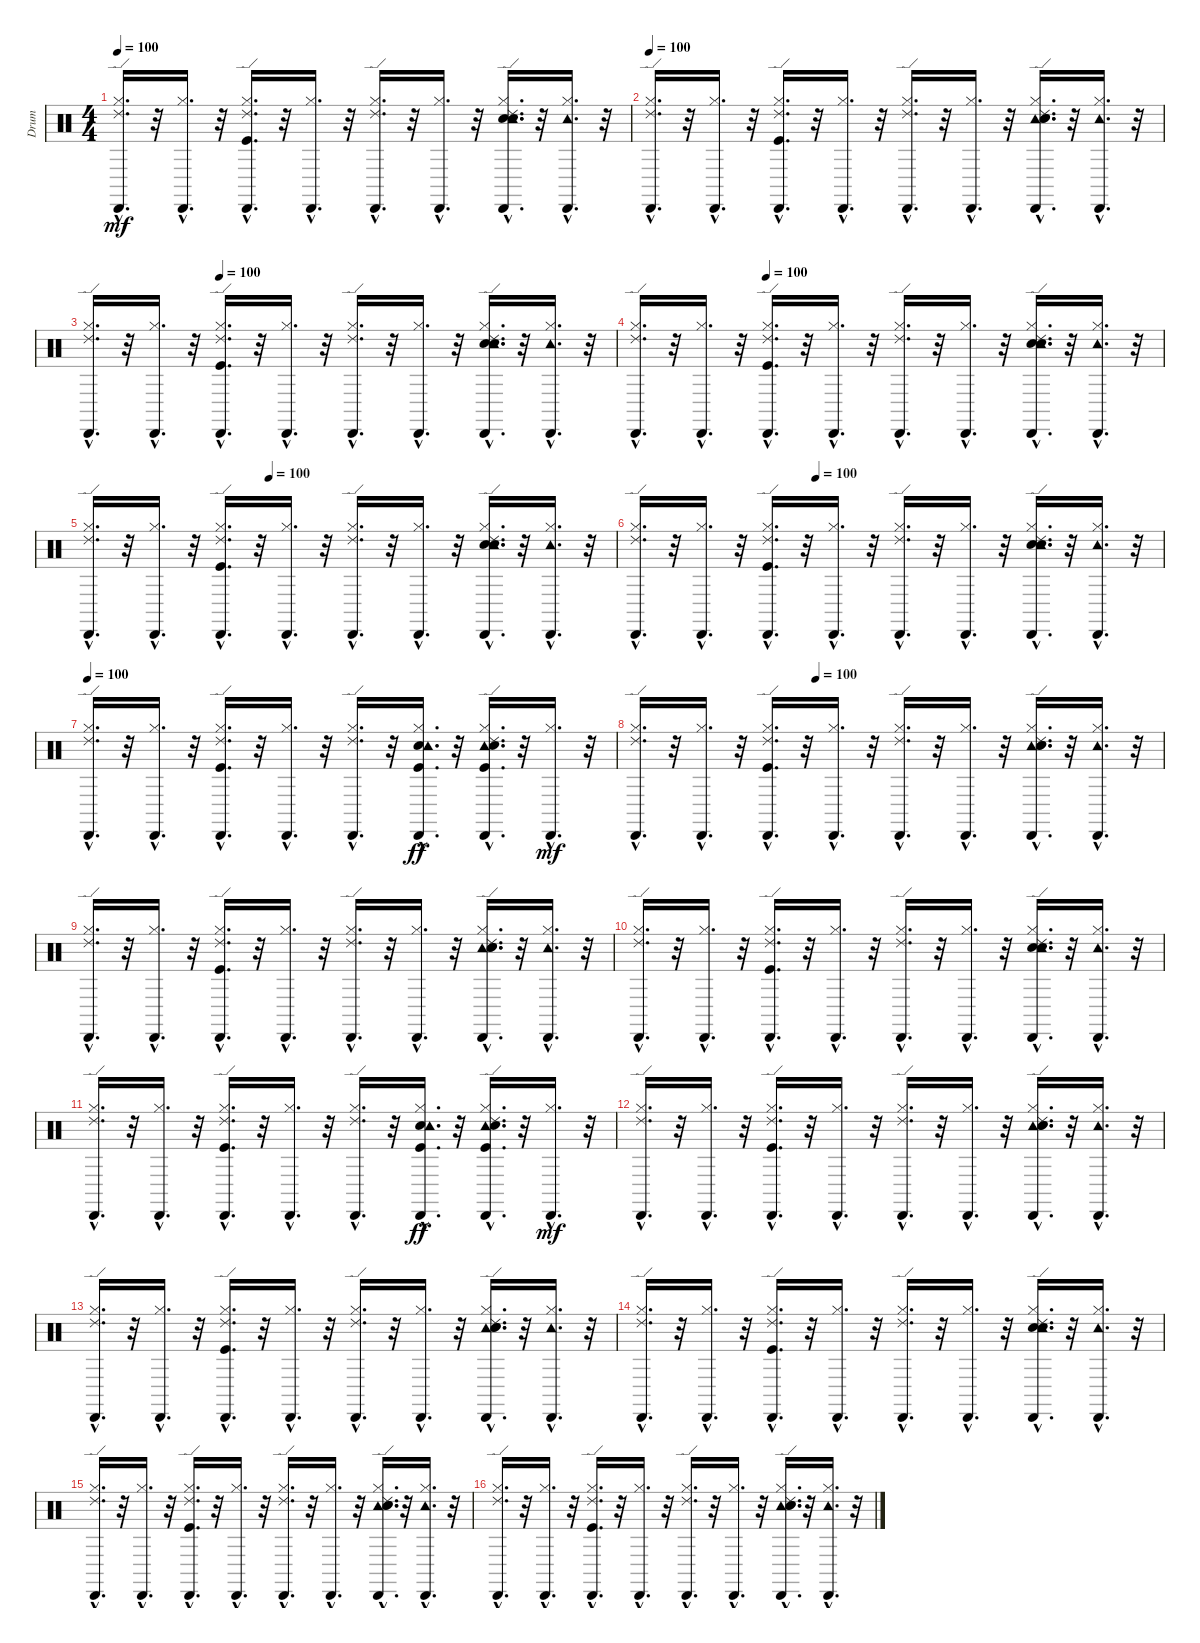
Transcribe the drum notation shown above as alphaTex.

\track ("Drum" "Drum") {instrument percussion}
\staff {score}
\articulation defaults
\ts (4 4)
\tempo 100
\clef neutral
\ks c
("Ride (edge) 2"{hac} "Cabasa (hit)"{hac} "Hi-Hat (closed)"{hac}).16{d dy mf} r.32 ("Cabasa (hit)"{hac} "Hi-Hat (closed)"{hac}).16{d} r.32 ("Ride (edge) 2"{hac} "Cabasa (hit)"{hac} "Kick (hit)"{hac} "Hi-Hat (closed)"{hac}).16{d} r.32 ("Cabasa (hit)"{hac} "Hi-Hat (closed)"{hac}).16{d} r.32 ("Ride (edge) 2"{hac} "Cabasa (hit)"{hac} "Hi-Hat (closed)"{hac}).16{d} r.32 ("Cabasa (hit)"{hac} "Hi-Hat (closed)"{hac}).16{d} r.32 ("Electric Snare (hit)"{hac} "Ride (edge) 2"{hac} "Cabasa (hit)"{hac} "Snare (hit) 2"{hac} "Tambourine (hit)"{hac} "Hi-Hat (closed)"{hac}).16{d} r.32 ("Cabasa (hit)"{hac} "Tambourine (hit)"{hac} "Hi-Hat (closed)"{hac}).16{d} r.32 |
\tempo 100
("Hi-Hat (closed)"{hac} "Cabasa (hit)"{hac} "Ride (edge) 2"{hac}).16{d} r.32 ("Hi-Hat (closed)"{hac} "Cabasa (hit)"{hac}).16{d} r.32 ("Hi-Hat (closed)"{hac} "Kick (hit)"{hac} "Cabasa (hit)"{hac} "Ride (edge) 2"{hac}).16{d} r.32 ("Hi-Hat (closed)"{hac} "Cabasa (hit)"{hac}).16{d} r.32 ("Hi-Hat (closed)"{hac} "Cabasa (hit)"{hac} "Ride (edge) 2"{hac}).16{d} r.32 ("Hi-Hat (closed)"{hac} "Cabasa (hit)"{hac}).16{d} r.32 ("Hi-Hat (closed)"{hac} "Tambourine (hit)"{hac} "Snare (hit) 2"{hac} "Cabasa (hit)"{hac} "Ride (edge) 2"{hac} "Electric Snare (hit)"{hac}).16{d} r.32 ("Hi-Hat (closed)"{hac} "Tambourine (hit)"{hac} "Cabasa (hit)"{hac}).16{d} r.32 |
\tempo (100 0.25)
("Ride (edge) 2"{hac} "Cabasa (hit)"{hac} "Hi-Hat (closed)"{hac}).16{d} r.32 ("Cabasa (hit)"{hac} "Hi-Hat (closed)"{hac}).16{d} r.32 ("Ride (edge) 2"{hac} "Cabasa (hit)"{hac} "Kick (hit)"{hac} "Hi-Hat (closed)"{hac}).16{d} r.32 ("Cabasa (hit)"{hac} "Hi-Hat (closed)"{hac}).16{d} r.32 ("Ride (edge) 2"{hac} "Cabasa (hit)"{hac} "Hi-Hat (closed)"{hac}).16{d} r.32 ("Cabasa (hit)"{hac} "Hi-Hat (closed)"{hac}).16{d} r.32 ("Electric Snare (hit)"{hac} "Ride (edge) 2"{hac} "Cabasa (hit)"{hac} "Snare (hit) 2"{hac} "Tambourine (hit)"{hac} "Hi-Hat (closed)"{hac}).16{d} r.32 ("Cabasa (hit)"{hac} "Tambourine (hit)"{hac} "Hi-Hat (closed)"{hac}).16{d} r.32 |
\tempo (100 0.25)
("Ride (edge) 2"{hac} "Cabasa (hit)"{hac} "Hi-Hat (closed)"{hac}).16{d} r.32 ("Cabasa (hit)"{hac} "Hi-Hat (closed)"{hac}).16{d} r.32 ("Ride (edge) 2"{hac} "Cabasa (hit)"{hac} "Kick (hit)"{hac} "Hi-Hat (closed)"{hac}).16{d} r.32 ("Cabasa (hit)"{hac} "Hi-Hat (closed)"{hac}).16{d} r.32 ("Ride (edge) 2"{hac} "Cabasa (hit)"{hac} "Hi-Hat (closed)"{hac}).16{d} r.32 ("Cabasa (hit)"{hac} "Hi-Hat (closed)"{hac}).16{d} r.32 ("Electric Snare (hit)"{hac} "Ride (edge) 2"{hac} "Cabasa (hit)"{hac} "Snare (hit) 2"{hac} "Tambourine (hit)"{hac} "Hi-Hat (closed)"{hac}).16{d} r.32 ("Cabasa (hit)"{hac} "Tambourine (hit)"{hac} "Hi-Hat (closed)"{hac}).16{d} r.32 |
\tempo (100 0.34375)
("Ride (edge) 2"{hac} "Cabasa (hit)"{hac} "Hi-Hat (closed)"{hac}).16{d} r.32 ("Cabasa (hit)"{hac} "Hi-Hat (closed)"{hac}).16{d} r.32 ("Ride (edge) 2"{hac} "Cabasa (hit)"{hac} "Kick (hit)"{hac} "Hi-Hat (closed)"{hac}).16{d} r.32 ("Cabasa (hit)"{hac} "Hi-Hat (closed)"{hac}).16{d} r.32 ("Ride (edge) 2"{hac} "Cabasa (hit)"{hac} "Hi-Hat (closed)"{hac}).16{d} r.32 ("Cabasa (hit)"{hac} "Hi-Hat (closed)"{hac}).16{d} r.32 ("Electric Snare (hit)"{hac} "Ride (edge) 2"{hac} "Cabasa (hit)"{hac} "Snare (hit) 2"{hac} "Tambourine (hit)"{hac} "Hi-Hat (closed)"{hac}).16{d} r.32 ("Cabasa (hit)"{hac} "Tambourine (hit)"{hac} "Hi-Hat (closed)"{hac}).16{d} r.32 |
\tempo (100 0.34375)
("Ride (edge) 2"{hac} "Cabasa (hit)"{hac} "Hi-Hat (closed)"{hac}).16{d} r.32 ("Cabasa (hit)"{hac} "Hi-Hat (closed)"{hac}).16{d} r.32 ("Ride (edge) 2"{hac} "Cabasa (hit)"{hac} "Kick (hit)"{hac} "Hi-Hat (closed)"{hac}).16{d} r.32 ("Cabasa (hit)"{hac} "Hi-Hat (closed)"{hac}).16{d} r.32 ("Ride (edge) 2"{hac} "Cabasa (hit)"{hac} "Hi-Hat (closed)"{hac}).16{d} r.32 ("Cabasa (hit)"{hac} "Hi-Hat (closed)"{hac}).16{d} r.32 ("Electric Snare (hit)"{hac} "Ride (edge) 2"{hac} "Cabasa (hit)"{hac} "Snare (hit) 2"{hac} "Tambourine (hit)"{hac} "Hi-Hat (closed)"{hac}).16{d} r.32 ("Cabasa (hit)"{hac} "Tambourine (hit)"{hac} "Hi-Hat (closed)"{hac}).16{d} r.32 |
\tempo 100
("Hi-Hat (closed)"{hac} "Cabasa (hit)"{hac} "Ride (edge) 2"{hac}).16{d} r.32 ("Hi-Hat (closed)"{hac} "Cabasa (hit)"{hac}).16{d} r.32 ("Hi-Hat (closed)"{hac} "Kick (hit)"{hac} "Cabasa (hit)"{hac} "Ride (edge) 2"{hac}).16{d} r.32 ("Hi-Hat (closed)"{hac} "Cabasa (hit)"{hac}).16{d} r.32 ("Hi-Hat (closed)"{hac} "Cabasa (hit)"{hac} "Ride (edge) 2"{hac}).16{d} r.32 ("Hi-Hat (closed)"{hac} "Cabasa (hit)"{hac} "Snare (hit) 2"{hac} "Kick (hit)"{hac} "Tambourine (hit)"{hac}).16{d dy ff} r.32 ("Hi-Hat (closed)"{hac} "Tambourine (hit)"{hac} "Snare (hit) 2"{hac} "Cabasa (hit)"{hac} "Ride (edge) 2"{hac} "Kick (hit)"{hac}).16{d} r.32 ("Hi-Hat (closed)"{hac} "Cabasa (hit)"{hac}).16{d dy mf} r.32 |
\tempo (100 0.34375)
("Hi-Hat (closed)"{hac} "Cabasa (hit)"{hac} "Ride (edge) 2"{hac}).16{d} r.32 ("Hi-Hat (closed)"{hac} "Cabasa (hit)"{hac}).16{d} r.32 ("Hi-Hat (closed)"{hac} "Kick (hit)"{hac} "Cabasa (hit)"{hac} "Ride (edge) 2"{hac}).16{d} r.32 ("Hi-Hat (closed)"{hac} "Cabasa (hit)"{hac}).16{d} r.32 ("Hi-Hat (closed)"{hac} "Cabasa (hit)"{hac} "Ride (edge) 2"{hac}).16{d} r.32 ("Hi-Hat (closed)"{hac} "Cabasa (hit)"{hac}).16{d} r.32 ("Hi-Hat (closed)"{hac} "Tambourine (hit)"{hac} "Snare (hit) 2"{hac} "Cabasa (hit)"{hac} "Ride (edge) 2"{hac} "Electric Snare (hit)"{hac}).16{d} r.32 ("Hi-Hat (closed)"{hac} "Tambourine (hit)"{hac} "Cabasa (hit)"{hac}).16{d} r.32 |
("Hi-Hat (closed)"{hac} "Cabasa (hit)"{hac} "Ride (edge) 2"{hac}).16{d} r.32 ("Hi-Hat (closed)"{hac} "Cabasa (hit)"{hac}).16{d} r.32 ("Hi-Hat (closed)"{hac} "Kick (hit)"{hac} "Cabasa (hit)"{hac} "Ride (edge) 2"{hac}).16{d} r.32 ("Hi-Hat (closed)"{hac} "Cabasa (hit)"{hac}).16{d} r.32 ("Hi-Hat (closed)"{hac} "Cabasa (hit)"{hac} "Ride (edge) 2"{hac}).16{d} r.32 ("Hi-Hat (closed)"{hac} "Cabasa (hit)"{hac}).16{d} r.32 ("Hi-Hat (closed)"{hac} "Tambourine (hit)"{hac} "Snare (hit) 2"{hac} "Cabasa (hit)"{hac} "Ride (edge) 2"{hac} "Electric Snare (hit)"{hac}).16{d} r.32 ("Hi-Hat (closed)"{hac} "Tambourine (hit)"{hac} "Cabasa (hit)"{hac}).16{d} r.32 |
("Ride (edge) 2"{hac} "Cabasa (hit)"{hac} "Hi-Hat (closed)"{hac}).16{d} r.32 ("Cabasa (hit)"{hac} "Hi-Hat (closed)"{hac}).16{d} r.32 ("Ride (edge) 2"{hac} "Cabasa (hit)"{hac} "Kick (hit)"{hac} "Hi-Hat (closed)"{hac}).16{d} r.32 ("Cabasa (hit)"{hac} "Hi-Hat (closed)"{hac}).16{d} r.32 ("Ride (edge) 2"{hac} "Cabasa (hit)"{hac} "Hi-Hat (closed)"{hac}).16{d} r.32 ("Cabasa (hit)"{hac} "Hi-Hat (closed)"{hac}).16{d} r.32 ("Electric Snare (hit)"{hac} "Ride (edge) 2"{hac} "Cabasa (hit)"{hac} "Snare (hit) 2"{hac} "Tambourine (hit)"{hac} "Hi-Hat (closed)"{hac}).16{d} r.32 ("Cabasa (hit)"{hac} "Tambourine (hit)"{hac} "Hi-Hat (closed)"{hac}).16{d} r.32 |
("Hi-Hat (closed)"{hac} "Cabasa (hit)"{hac} "Ride (edge) 2"{hac}).16{d} r.32 ("Hi-Hat (closed)"{hac} "Cabasa (hit)"{hac}).16{d} r.32 ("Hi-Hat (closed)"{hac} "Kick (hit)"{hac} "Cabasa (hit)"{hac} "Ride (edge) 2"{hac}).16{d} r.32 ("Hi-Hat (closed)"{hac} "Cabasa (hit)"{hac}).16{d} r.32 ("Hi-Hat (closed)"{hac} "Cabasa (hit)"{hac} "Ride (edge) 2"{hac}).16{d} r.32 ("Hi-Hat (closed)"{hac} "Cabasa (hit)"{hac} "Snare (hit) 2"{hac} "Kick (hit)"{hac} "Tambourine (hit)"{hac}).16{d dy ff} r.32 ("Hi-Hat (closed)"{hac} "Tambourine (hit)"{hac} "Snare (hit) 2"{hac} "Cabasa (hit)"{hac} "Ride (edge) 2"{hac} "Kick (hit)"{hac}).16{d} r.32 ("Hi-Hat (closed)"{hac} "Cabasa (hit)"{hac}).16{d dy mf} r.32 |
("Hi-Hat (closed)"{hac} "Cabasa (hit)"{hac} "Ride (edge) 2"{hac}).16{d} r.32 ("Hi-Hat (closed)"{hac} "Cabasa (hit)"{hac}).16{d} r.32 ("Hi-Hat (closed)"{hac} "Kick (hit)"{hac} "Cabasa (hit)"{hac} "Ride (edge) 2"{hac}).16{d} r.32 ("Hi-Hat (closed)"{hac} "Cabasa (hit)"{hac}).16{d} r.32 ("Hi-Hat (closed)"{hac} "Cabasa (hit)"{hac} "Ride (edge) 2"{hac}).16{d} r.32 ("Hi-Hat (closed)"{hac} "Cabasa (hit)"{hac}).16{d} r.32 ("Hi-Hat (closed)"{hac} "Tambourine (hit)"{hac} "Snare (hit) 2"{hac} "Cabasa (hit)"{hac} "Ride (edge) 2"{hac} "Electric Snare (hit)"{hac}).16{d} r.32 ("Hi-Hat (closed)"{hac} "Tambourine (hit)"{hac} "Cabasa (hit)"{hac}).16{d} r.32 |
("Hi-Hat (closed)"{hac} "Cabasa (hit)"{hac} "Ride (edge) 2"{hac}).16{d} r.32 ("Hi-Hat (closed)"{hac} "Cabasa (hit)"{hac}).16{d} r.32 ("Hi-Hat (closed)"{hac} "Kick (hit)"{hac} "Cabasa (hit)"{hac} "Ride (edge) 2"{hac}).16{d} r.32 ("Hi-Hat (closed)"{hac} "Cabasa (hit)"{hac}).16{d} r.32 ("Hi-Hat (closed)"{hac} "Cabasa (hit)"{hac} "Ride (edge) 2"{hac}).16{d} r.32 ("Hi-Hat (closed)"{hac} "Cabasa (hit)"{hac}).16{d} r.32 ("Hi-Hat (closed)"{hac} "Tambourine (hit)"{hac} "Snare (hit) 2"{hac} "Cabasa (hit)"{hac} "Ride (edge) 2"{hac} "Electric Snare (hit)"{hac}).16{d} r.32 ("Hi-Hat (closed)"{hac} "Tambourine (hit)"{hac} "Cabasa (hit)"{hac}).16{d} r.32 |
("Ride (edge) 2"{hac} "Cabasa (hit)"{hac} "Hi-Hat (closed)"{hac}).16{d} r.32 ("Cabasa (hit)"{hac} "Hi-Hat (closed)"{hac}).16{d} r.32 ("Ride (edge) 2"{hac} "Cabasa (hit)"{hac} "Kick (hit)"{hac} "Hi-Hat (closed)"{hac}).16{d} r.32 ("Cabasa (hit)"{hac} "Hi-Hat (closed)"{hac}).16{d} r.32 ("Ride (edge) 2"{hac} "Cabasa (hit)"{hac} "Hi-Hat (closed)"{hac}).16{d} r.32 ("Cabasa (hit)"{hac} "Hi-Hat (closed)"{hac}).16{d} r.32 ("Electric Snare (hit)"{hac} "Ride (edge) 2"{hac} "Cabasa (hit)"{hac} "Snare (hit) 2"{hac} "Tambourine (hit)"{hac} "Hi-Hat (closed)"{hac}).16{d} r.32 ("Cabasa (hit)"{hac} "Tambourine (hit)"{hac} "Hi-Hat (closed)"{hac}).16{d} r.32 |
("Hi-Hat (closed)"{hac} "Cabasa (hit)"{hac} "Ride (edge) 2"{hac}).16{d} r.32 ("Hi-Hat (closed)"{hac} "Cabasa (hit)"{hac}).16{d} r.32 ("Hi-Hat (closed)"{hac} "Kick (hit)"{hac} "Cabasa (hit)"{hac} "Ride (edge) 2"{hac}).16{d} r.32 ("Hi-Hat (closed)"{hac} "Cabasa (hit)"{hac}).16{d} r.32 ("Hi-Hat (closed)"{hac} "Cabasa (hit)"{hac} "Ride (edge) 2"{hac}).16{d} r.32 ("Hi-Hat (closed)"{hac} "Cabasa (hit)"{hac}).16{d} r.32 ("Hi-Hat (closed)"{hac} "Tambourine (hit)"{hac} "Snare (hit) 2"{hac} "Cabasa (hit)"{hac} "Ride (edge) 2"{hac} "Electric Snare (hit)"{hac}).16{d} r.32 ("Hi-Hat (closed)"{hac} "Tambourine (hit)"{hac} "Cabasa (hit)"{hac}).16{d} r.32 |
("Ride (edge) 2"{hac} "Cabasa (hit)"{hac} "Hi-Hat (closed)"{hac}).16{d} r.32 ("Cabasa (hit)"{hac} "Hi-Hat (closed)"{hac}).16{d} r.32 ("Kick (hit)"{hac} "Hi-Hat (closed)"{hac} "Cabasa (hit)"{hac} "Ride (edge) 2"{hac}).16{d} r.32 ("Hi-Hat (closed)"{hac} "Cabasa (hit)"{hac}).16{d} r.32 ("Cabasa (hit)"{hac} "Ride (edge) 2"{hac} "Hi-Hat (closed)"{hac}).16{d} r.32 ("Cabasa (hit)"{hac} "Hi-Hat (closed)"{hac}).16{d} r.32 ("Cabasa (hit)"{hac} "Ride (edge) 2"{hac} "Hi-Hat (closed)"{hac} "Tambourine (hit)"{hac} "Electric Snare (hit)"{hac} "Snare (hit) 2"{hac}).16{d} r.32 ("Cabasa (hit)"{hac} "Hi-Hat (closed)"{hac} "Tambourine (hit)"{hac}).16{d} r.32
